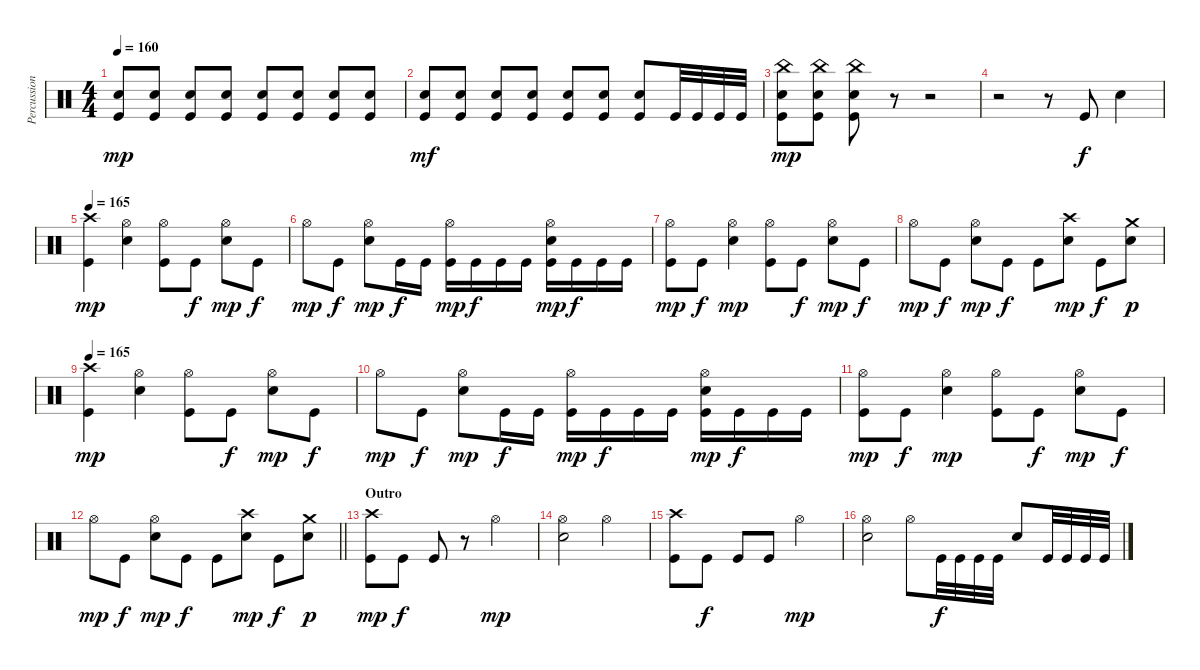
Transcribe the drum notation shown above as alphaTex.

\track ("Percussion" "Percussion") {instrument percussion}
\staff {score}
\articulation defaults
\ts (4 4)
\tempo 160
\clef neutral
\ks c
("Electric Snare (hit)" "Kick (hit)").8{dy mp} ("Electric Snare (hit)" "Kick (hit)").8 ("Electric Snare (hit)" "Kick (hit)").8 ("Electric Snare (hit)" "Kick (hit)").8 ("Electric Snare (hit)" "Kick (hit)").8 ("Electric Snare (hit)" "Kick (hit)").8 ("Electric Snare (hit)" "Kick (hit)").8 ("Electric Snare (hit)" "Kick (hit)").8 |
("Electric Snare (hit)" "Kick (hit)").8{dy mf} ("Electric Snare (hit)" "Kick (hit)").8 ("Electric Snare (hit)" "Kick (hit)").8 ("Electric Snare (hit)" "Kick (hit)").8 ("Electric Snare (hit)" "Kick (hit)").8 ("Electric Snare (hit)" "Kick (hit)").8 ("Electric Snare (hit)" "Kick (hit)").8 "Kick (hit)".32 "Kick (hit)".32 "Kick (hit)".32 "Kick (hit)".32 |
("China (hit)" "Electric Snare (hit)" "Kick (hit)").8{dy mp} ("China (hit)" "Electric Snare (hit)" "Kick (hit)").8 ("China (hit)" "Electric Snare (hit)" "Kick (hit)").8 r.8 r.2 |
r.2 r.8 "Kick (hit)".8{dy f} "Electric Snare (hit)".4 |
\tempo 165
("Crash high (hit)" "Kick (hit)").4{dy mp} ("Hi-Hat (open)" "Electric Snare (hit)").4 ("Hi-Hat (open)" "Kick (hit)").8 "Kick (hit)".8{dy f} ("Hi-Hat (open)" "Electric Snare (hit)").8{dy mp} "Kick (hit)".8{dy f} |
"Hi-Hat (open)".8{dy mp} "Kick (hit)".8{dy f} ("Hi-Hat (open)" "Electric Snare (hit)").8{dy mp} "Kick (hit)".16{dy f} "Kick (hit)".16 ("Hi-Hat (open)" "Kick (hit)").16{dy mp} "Kick (hit)".16{dy f} "Kick (hit)".16 "Kick (hit)".16 ("Hi-Hat (open)" "Electric Snare (hit)" "Kick (hit)").16{dy mp} "Kick (hit)".16{dy f} "Kick (hit)".16 "Kick (hit)".16 |
("Hi-Hat (open)" "Kick (hit)").8{dy mp} "Kick (hit)".8{dy f} ("Hi-Hat (open)" "Electric Snare (hit)").4{dy mp} ("Hi-Hat (open)" "Kick (hit)").8 "Kick (hit)".8{dy f} ("Hi-Hat (open)" "Electric Snare (hit)").8{dy mp} "Kick (hit)".8{dy f} |
"Hi-Hat (open)".8{dy mp} "Kick (hit)".8{dy f} ("Hi-Hat (open)" "Electric Snare (hit)").8{dy mp} "Kick (hit)".8{dy f} "Kick (hit)".8 ("Crash high (hit)" "Electric Snare (hit)").8{dy mp} "Kick (hit)".8{dy f} ("Crash medium (hit)" "Electric Snare (hit)").8{dy p} |
\tempo 165
("Crash high (hit)" "Kick (hit)").4{dy mp} ("Hi-Hat (open)" "Electric Snare (hit)").4 ("Hi-Hat (open)" "Kick (hit)").8 "Kick (hit)".8{dy f} ("Hi-Hat (open)" "Electric Snare (hit)").8{dy mp} "Kick (hit)".8{dy f} |
"Hi-Hat (open)".8{dy mp} "Kick (hit)".8{dy f} ("Hi-Hat (open)" "Electric Snare (hit)").8{dy mp} "Kick (hit)".16{dy f} "Kick (hit)".16 ("Hi-Hat (open)" "Kick (hit)").16{dy mp} "Kick (hit)".16{dy f} "Kick (hit)".16 "Kick (hit)".16 ("Hi-Hat (open)" "Electric Snare (hit)" "Kick (hit)").16{dy mp} "Kick (hit)".16{dy f} "Kick (hit)".16 "Kick (hit)".16 |
("Hi-Hat (open)" "Kick (hit)").8{dy mp} "Kick (hit)".8{dy f} ("Hi-Hat (open)" "Electric Snare (hit)").4{dy mp} ("Hi-Hat (open)" "Kick (hit)").8 "Kick (hit)".8{dy f} ("Hi-Hat (open)" "Electric Snare (hit)").8{dy mp} "Kick (hit)".8{dy f} |
\barLineRight lightlight "Hi-Hat (open)".8{dy mp} "Kick (hit)".8{dy f}
("Hi-Hat (open)" "Electric Snare (hit)").8{dy mp} "Kick (hit)".8{dy f} "Kick (hit)".8 ("Crash high (hit)" "Electric Snare (hit)").8{dy mp} "Kick (hit)".8{dy f} ("Crash medium (hit)" "Electric Snare (hit)").8{dy p} |
\section ("" "Outro")
("Crash high (hit)" "Kick (hit)").8{dy mp} "Kick (hit)".8{dy f} "Kick (hit)".8 r.8 "Hi-Hat (open)".2{dy mp} |
("Hi-Hat (open)" "Electric Snare (hit)").2 "Hi-Hat (open)".2 |
("Crash high (hit)" "Kick (hit)").8 "Kick (hit)".8{dy f} "Kick (hit)".8 "Kick (hit)".8 "Hi-Hat (open)".2{dy mp} |
("Hi-Hat (open)" "Electric Snare (hit)").2 "Hi-Hat (open)".8 "Kick (hit)".32{dy f} "Kick (hit)".32 "Kick (hit)".32 "Kick (hit)".32 "Electric Snare (hit)".8 "Kick (hit)".32 "Kick (hit)".32 "Kick (hit)".32 "Kick (hit)".32
